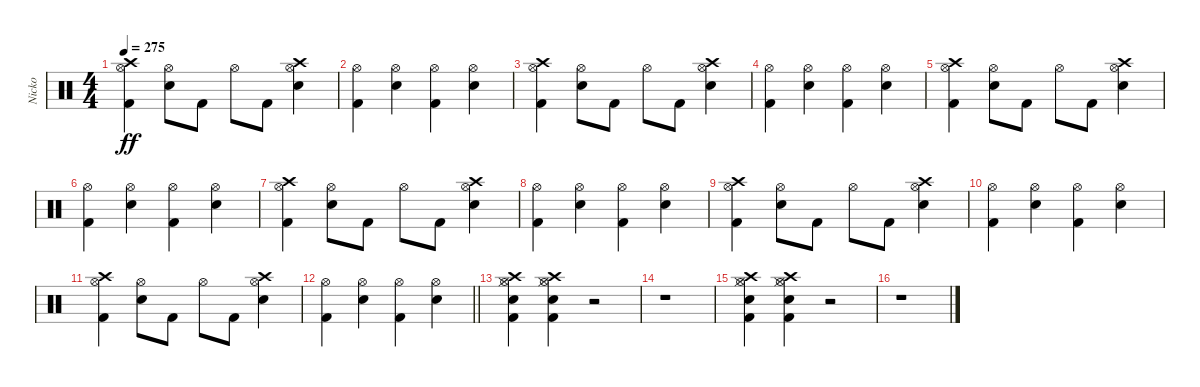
\track ("Nicko" "Nicko") {instrument percussion}
\staff {score}
\articulation defaults
\ts (4 4)
\tempo 275
\clef neutral
\ks c
("Kick (hit) 2" "Hi-Hat (open)" "Crash high (hit)").4{dy ff} ("Snare (hit) 2" "Hi-Hat (open)").8 "Kick (hit) 2".8 "Hi-Hat (open)".8 "Kick (hit) 2".8 ("Snare (hit) 2" "Hi-Hat (open)" "Crash high (hit)").4 |
("Kick (hit) 2" "Hi-Hat (open)").4 ("Snare (hit) 2" "Hi-Hat (open)").4 ("Kick (hit) 2" "Hi-Hat (open)").4 ("Snare (hit) 2" "Hi-Hat (open)").4 |
("Kick (hit) 2" "Hi-Hat (open)" "Crash high (hit)").4 ("Snare (hit) 2" "Hi-Hat (open)").8 "Kick (hit) 2".8 "Hi-Hat (open)".8 "Kick (hit) 2".8 ("Snare (hit) 2" "Hi-Hat (open)" "Crash high (hit)").4 |
("Kick (hit) 2" "Hi-Hat (open)").4 ("Snare (hit) 2" "Hi-Hat (open)").4 ("Kick (hit) 2" "Hi-Hat (open)").4 ("Snare (hit) 2" "Hi-Hat (open)").4 |
("Kick (hit) 2" "Hi-Hat (open)" "Crash high (hit)").4 ("Snare (hit) 2" "Hi-Hat (open)").8 "Kick (hit) 2".8 "Hi-Hat (open)".8 "Kick (hit) 2".8 ("Snare (hit) 2" "Hi-Hat (open)" "Crash high (hit)").4 |
("Kick (hit) 2" "Hi-Hat (open)").4 ("Snare (hit) 2" "Hi-Hat (open)").4 ("Kick (hit) 2" "Hi-Hat (open)").4 ("Snare (hit) 2" "Hi-Hat (open)").4 |
("Kick (hit) 2" "Hi-Hat (open)" "Crash high (hit)").4 ("Snare (hit) 2" "Hi-Hat (open)").8 "Kick (hit) 2".8 "Hi-Hat (open)".8 "Kick (hit) 2".8 ("Snare (hit) 2" "Hi-Hat (open)" "Crash high (hit)").4 |
("Kick (hit) 2" "Hi-Hat (open)").4 ("Snare (hit) 2" "Hi-Hat (open)").4 ("Kick (hit) 2" "Hi-Hat (open)").4 ("Snare (hit) 2" "Hi-Hat (open)").4 |
("Kick (hit) 2" "Hi-Hat (open)" "Crash high (hit)").4 ("Snare (hit) 2" "Hi-Hat (open)").8 "Kick (hit) 2".8 "Hi-Hat (open)".8 "Kick (hit) 2".8 ("Snare (hit) 2" "Hi-Hat (open)" "Crash high (hit)").4 |
("Kick (hit) 2" "Hi-Hat (open)").4 ("Snare (hit) 2" "Hi-Hat (open)").4 ("Kick (hit) 2" "Hi-Hat (open)").4 ("Snare (hit) 2" "Hi-Hat (open)").4 |
("Kick (hit) 2" "Hi-Hat (open)" "Crash high (hit)").4 ("Snare (hit) 2" "Hi-Hat (open)").8 "Kick (hit) 2".8 "Hi-Hat (open)".8 "Kick (hit) 2".8 ("Snare (hit) 2" "Hi-Hat (open)" "Crash high (hit)").4 |
\barLineRight lightlight
("Kick (hit) 2" "Hi-Hat (open)").4 ("Snare (hit) 2" "Hi-Hat (open)").4 ("Kick (hit) 2" "Hi-Hat (open)").4 ("Snare (hit) 2" "Hi-Hat (open)").4 |
("Kick (hit) 2" "Snare (hit) 2" "Hi-Hat (closed)" "Hi-Hat (open)" "Crash high (hit)").4 ("Kick (hit) 2" "Snare (hit) 2" "Hi-Hat (closed)" "Hi-Hat (open)" "Crash high (hit)").4 r.2 |
r.1 |
("Kick (hit) 2" "Snare (hit) 2" "Hi-Hat (closed)" "Hi-Hat (open)" "Crash high (hit)").4 ("Kick (hit) 2" "Snare (hit) 2" "Hi-Hat (closed)" "Hi-Hat (open)" "Crash high (hit)").4 r.2 |
r.1
